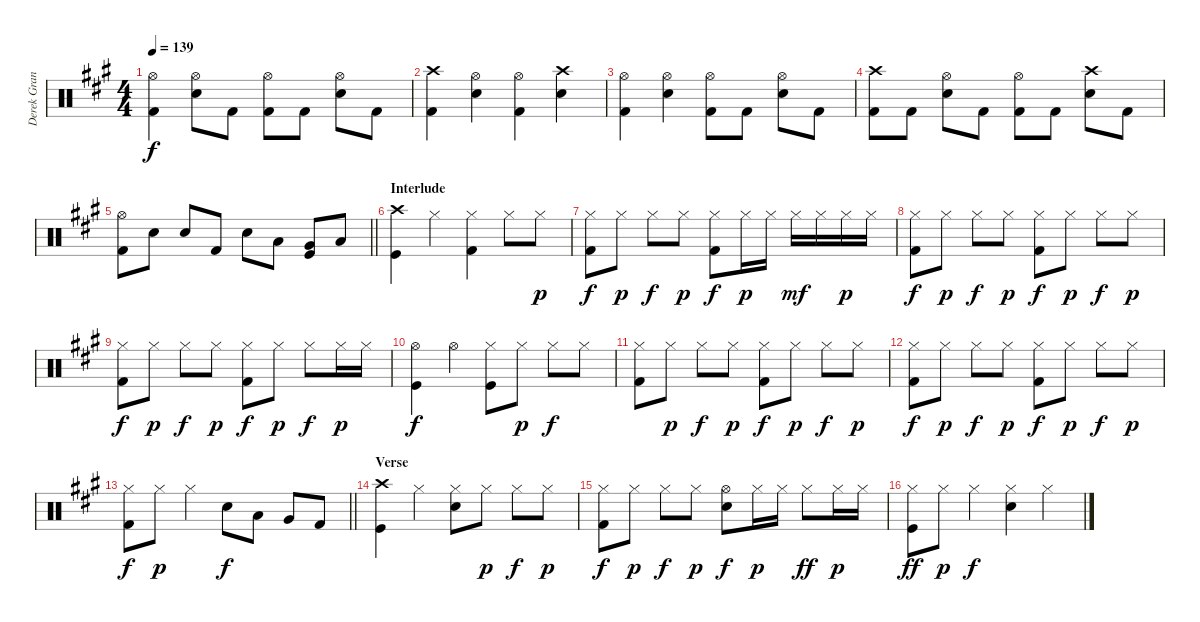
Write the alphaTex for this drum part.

\track ("Derek Grant - Drums" "Derek Gran") {instrument percussion}
\staff {score}
\articulation defaults
\ts (4 4)
\tempo 139
\clef neutral
\ks a
("Kick (hit) 2" "Hi-Hat (open)").4{dy f} ("Snare (hit) 2" "Hi-Hat (open)").8 "Kick (hit) 2".8 ("Kick (hit) 2" "Hi-Hat (open)").8 "Kick (hit) 2".8 ("Hi-Hat (open)" "Snare (hit) 2").8 "Kick (hit) 2".8 |
("Crash high (hit)" "Kick (hit) 2").4 ("Snare (hit) 2" "Hi-Hat (open)").4 ("Kick (hit) 2" "Hi-Hat (open)").4 ("Snare (hit) 2" "Crash high (hit)").4 |
("Kick (hit) 2" "Hi-Hat (open)").4 ("Snare (hit) 2" "Hi-Hat (open)").4 ("Kick (hit) 2" "Hi-Hat (open)").8 "Kick (hit) 2".8 ("Hi-Hat (open)" "Snare (hit) 2").8 "Kick (hit) 2".8 |
("Crash high (hit)" "Kick (hit) 2").8 "Kick (hit) 2".8 ("Snare (hit) 2" "Hi-Hat (open)").8 "Kick (hit) 2".8 ("Hi-Hat (open)" "Kick (hit) 2").8 "Kick (hit) 2".8 ("Crash high (hit)" "Snare (hit) 2").8 "Kick (hit) 2".8 |
\barLineRight lightlight
("Kick (hit) 2" "Hi-Hat (open)").8 "Snare (hit) 2".8 "Snare (hit) 2".8 "Kick (hit) 2".8 "Snare (hit) 2".8 "Low Tom (hit)".8 ("Very Low Tom (hit)" "Kick (hit)").8 "Low Floor Tom (hit)".8 |
\section ("" "Interlude")
("Crash high (hit)" "Kick (hit)").4 "Hi-Hat (closed)".4 ("Hi-Hat (closed)" "Kick (hit) 2").4 "Hi-Hat (closed)".8 "Hi-Hat (closed)".8{dy p} |
("Hi-Hat (closed)" "Kick (hit) 2").8{dy f} "Hi-Hat (closed)".8{dy p} "Hi-Hat (closed)".8{dy f} "Hi-Hat (closed)".8{dy p} ("Kick (hit) 2" "Hi-Hat (closed)").8{dy f} "Hi-Hat (closed)".16{dy p} "Hi-Hat (closed)".16 "Hi-Hat (closed)".16{dy mf} "Hi-Hat (closed)".16 "Hi-Hat (closed)".16{dy p} "Hi-Hat (closed)".16 |
("Hi-Hat (closed)" "Kick (hit) 2").8{dy f} "Hi-Hat (closed)".8{dy p} "Hi-Hat (closed)".8{dy f} "Hi-Hat (closed)".8{dy p} ("Hi-Hat (closed)" "Kick (hit) 2").8{dy f} "Hi-Hat (closed)".8{dy p} "Hi-Hat (closed)".8{dy f} "Hi-Hat (closed)".8{dy p} |
("Hi-Hat (closed)" "Kick (hit) 2").8{dy f} "Hi-Hat (closed)".8{dy p} "Hi-Hat (closed)".8{dy f} "Hi-Hat (closed)".8{dy p} ("Hi-Hat (closed)" "Kick (hit) 2").8{dy f} "Hi-Hat (closed)".8{dy p} "Hi-Hat (closed)".8{dy f} "Hi-Hat (closed)".16{dy p} "Hi-Hat (closed)".16 |
("Hi-Hat (open)" "Kick (hit)").4{dy f} "Hi-Hat (open)".4 ("Kick (hit)" "Hi-Hat (closed)").8 "Hi-Hat (closed)".8{dy p} "Hi-Hat (closed)".8{dy f} "Hi-Hat (closed)".8 |
("Hi-Hat (closed)" "Kick (hit) 2").8 "Hi-Hat (closed)".8{dy p} "Hi-Hat (closed)".8{dy f} "Hi-Hat (closed)".8{dy p} ("Hi-Hat (closed)" "Kick (hit) 2").8{dy f} "Hi-Hat (closed)".8{dy p} "Hi-Hat (closed)".8{dy f} "Hi-Hat (closed)".8{dy p} |
("Hi-Hat (closed)" "Kick (hit) 2").8{dy f} "Hi-Hat (closed)".8{dy p} "Hi-Hat (closed)".8{dy f} "Hi-Hat (closed)".8{dy p} ("Hi-Hat (closed)" "Kick (hit) 2").8{dy f} "Hi-Hat (closed)".8{dy p} "Hi-Hat (closed)".8{dy f} "Hi-Hat (closed)".8{dy p} |
\barLineRight lightlight
("Hi-Hat (closed)" "Kick (hit) 2").8{dy f} "Hi-Hat (closed)".8{dy p} "Hi-Hat (closed)".4 "Snare (hit) 2".8{dy f} "Low Tom (hit)".8 "Very Low Tom (hit)".8 "Kick (hit) 2".8 |
\section ("" "Verse")
("Kick (hit)" "Crash high (hit)").4 "Hi-Hat (closed)".4 ("Snare (hit) 2" "Hi-Hat (closed)").8 "Hi-Hat (closed)".8{dy p} "Hi-Hat (closed)".8{dy f} "Hi-Hat (closed)".8{dy p} |
("Kick (hit) 2" "Hi-Hat (closed)").8{dy f} "Hi-Hat (closed)".8{dy p} "Hi-Hat (closed)".8{dy f} "Hi-Hat (closed)".8{dy p} ("Hi-Hat (open)" "Snare (hit) 2").8{dy f} "Hi-Hat (closed)".16{dy p} "Hi-Hat (closed)".16 "Hi-Hat (closed)".8{dy ff} "Hi-Hat (closed)".16{dy p} "Hi-Hat (closed)".16 |
("Kick (hit)" "Hi-Hat (closed)").8{dy ff} "Hi-Hat (closed)".8{dy p} "Hi-Hat (closed)".4{dy f} ("Snare (hit) 2" "Hi-Hat (closed)").4 "Hi-Hat (closed)".4
